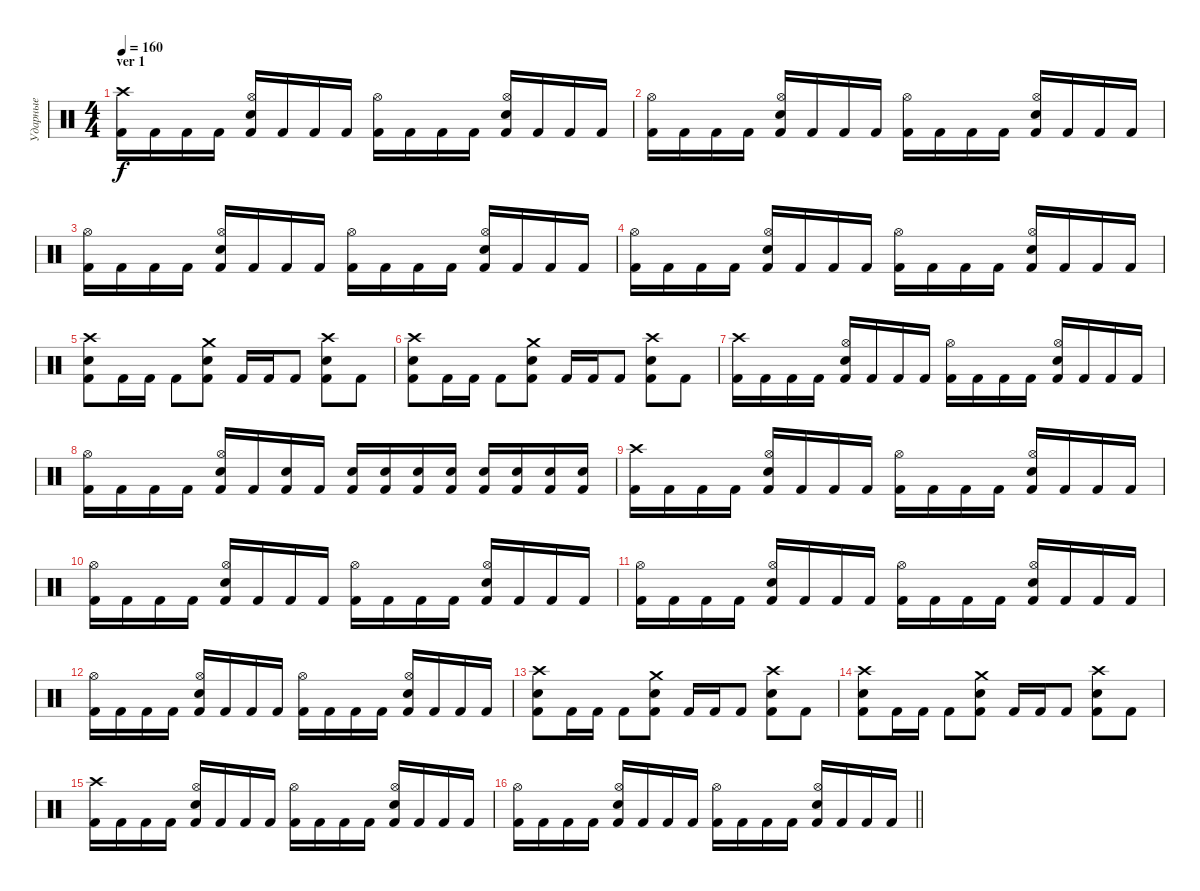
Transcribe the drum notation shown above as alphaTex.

\track ("Ударные" "Ударные") {instrument percussion}
\staff {score}
\articulation defaults
\ts (4 4)
\section ("" "ver 1")
\tempo 160
\clef neutral
\ks c
("Crash high (hit)" "Kick (hit) 2").16{dy f} "Kick (hit) 2".16 "Kick (hit) 2".16 "Kick (hit) 2".16 ("Hi-Hat (open)" "Electric Snare (hit)" "Kick (hit) 2").16 "Kick (hit) 2".16 "Kick (hit) 2".16 "Kick (hit) 2".16 ("Hi-Hat (open)" "Kick (hit) 2").16 "Kick (hit) 2".16 "Kick (hit) 2".16 "Kick (hit) 2".16 ("Hi-Hat (open)" "Electric Snare (hit)" "Kick (hit) 2").16 "Kick (hit) 2".16 "Kick (hit) 2".16 "Kick (hit) 2".16 |
("Hi-Hat (open)" "Kick (hit) 2").16 "Kick (hit) 2".16 "Kick (hit) 2".16 "Kick (hit) 2".16 ("Hi-Hat (open)" "Electric Snare (hit)" "Kick (hit) 2").16 "Kick (hit) 2".16 "Kick (hit) 2".16 "Kick (hit) 2".16 ("Hi-Hat (open)" "Kick (hit) 2").16 "Kick (hit) 2".16 "Kick (hit) 2".16 "Kick (hit) 2".16 ("Hi-Hat (open)" "Electric Snare (hit)" "Kick (hit) 2").16 "Kick (hit) 2".16 "Kick (hit) 2".16 "Kick (hit) 2".16 |
("Hi-Hat (open)" "Kick (hit) 2").16 "Kick (hit) 2".16 "Kick (hit) 2".16 "Kick (hit) 2".16 ("Hi-Hat (open)" "Electric Snare (hit)" "Kick (hit) 2").16 "Kick (hit) 2".16 "Kick (hit) 2".16 "Kick (hit) 2".16 ("Hi-Hat (open)" "Kick (hit) 2").16 "Kick (hit) 2".16 "Kick (hit) 2".16 "Kick (hit) 2".16 ("Hi-Hat (open)" "Electric Snare (hit)" "Kick (hit) 2").16 "Kick (hit) 2".16 "Kick (hit) 2".16 "Kick (hit) 2".16 |
("Hi-Hat (open)" "Kick (hit) 2").16 "Kick (hit) 2".16 "Kick (hit) 2".16 "Kick (hit) 2".16 ("Hi-Hat (open)" "Electric Snare (hit)" "Kick (hit) 2").16 "Kick (hit) 2".16 "Kick (hit) 2".16 "Kick (hit) 2".16 ("Hi-Hat (open)" "Kick (hit) 2").16 "Kick (hit) 2".16 "Kick (hit) 2".16 "Kick (hit) 2".16 ("Hi-Hat (open)" "Electric Snare (hit)" "Kick (hit) 2").16 "Kick (hit) 2".16 "Kick (hit) 2".16 "Kick (hit) 2".16 |
("Crash high (hit)" "Electric Snare (hit)" "Kick (hit) 2").8 "Kick (hit) 2".16 "Kick (hit) 2".16 "Kick (hit) 2".8 ("Crash medium (hit)" "Electric Snare (hit)" "Kick (hit) 2").8 "Kick (hit) 2".16 "Kick (hit) 2".16 "Kick (hit) 2".8 ("Crash high (hit)" "Electric Snare (hit)" "Kick (hit) 2").8 "Kick (hit) 2".8 |
("Crash high (hit)" "Electric Snare (hit)" "Kick (hit) 2").8 "Kick (hit) 2".16 "Kick (hit) 2".16 "Kick (hit) 2".8 ("Crash medium (hit)" "Electric Snare (hit)" "Kick (hit) 2").8 "Kick (hit) 2".16 "Kick (hit) 2".16 "Kick (hit) 2".8 ("Crash high (hit)" "Electric Snare (hit)" "Kick (hit) 2").8 "Kick (hit) 2".8 |
("Crash high (hit)" "Kick (hit) 2").16 "Kick (hit) 2".16 "Kick (hit) 2".16 "Kick (hit) 2".16 ("Hi-Hat (open)" "Electric Snare (hit)" "Kick (hit) 2").16 "Kick (hit) 2".16 "Kick (hit) 2".16 "Kick (hit) 2".16 ("Hi-Hat (open)" "Kick (hit) 2").16 "Kick (hit) 2".16 "Kick (hit) 2".16 "Kick (hit) 2".16 ("Hi-Hat (open)" "Electric Snare (hit)" "Kick (hit) 2").16 "Kick (hit) 2".16 "Kick (hit) 2".16 "Kick (hit) 2".16 |
("Hi-Hat (open)" "Kick (hit) 2").16 "Kick (hit) 2".16 "Kick (hit) 2".16 "Kick (hit) 2".16 ("Hi-Hat (open)" "Electric Snare (hit)" "Kick (hit) 2").16 "Kick (hit) 2".16 ("Electric Snare (hit)" "Kick (hit) 2").16 "Kick (hit) 2".16 ("Electric Snare (hit)" "Kick (hit) 2").16 ("Electric Snare (hit)" "Kick (hit) 2").16 ("Electric Snare (hit)" "Kick (hit) 2").16 ("Electric Snare (hit)" "Kick (hit) 2").16 ("Electric Snare (hit)" "Kick (hit) 2").16 ("Electric Snare (hit)" "Kick (hit) 2").16 ("Electric Snare (hit)" "Kick (hit) 2").16 ("Electric Snare (hit)" "Kick (hit) 2").16 |
("Crash high (hit)" "Kick (hit) 2").16 "Kick (hit) 2".16 "Kick (hit) 2".16 "Kick (hit) 2".16 ("Hi-Hat (open)" "Electric Snare (hit)" "Kick (hit) 2").16 "Kick (hit) 2".16 "Kick (hit) 2".16 "Kick (hit) 2".16 ("Hi-Hat (open)" "Kick (hit) 2").16 "Kick (hit) 2".16 "Kick (hit) 2".16 "Kick (hit) 2".16 ("Hi-Hat (open)" "Electric Snare (hit)" "Kick (hit) 2").16 "Kick (hit) 2".16 "Kick (hit) 2".16 "Kick (hit) 2".16 |
("Hi-Hat (open)" "Kick (hit) 2").16 "Kick (hit) 2".16 "Kick (hit) 2".16 "Kick (hit) 2".16 ("Hi-Hat (open)" "Electric Snare (hit)" "Kick (hit) 2").16 "Kick (hit) 2".16 "Kick (hit) 2".16 "Kick (hit) 2".16 ("Hi-Hat (open)" "Kick (hit) 2").16 "Kick (hit) 2".16 "Kick (hit) 2".16 "Kick (hit) 2".16 ("Hi-Hat (open)" "Electric Snare (hit)" "Kick (hit) 2").16 "Kick (hit) 2".16 "Kick (hit) 2".16 "Kick (hit) 2".16 |
("Hi-Hat (open)" "Kick (hit) 2").16 "Kick (hit) 2".16 "Kick (hit) 2".16 "Kick (hit) 2".16 ("Hi-Hat (open)" "Electric Snare (hit)" "Kick (hit) 2").16 "Kick (hit) 2".16 "Kick (hit) 2".16 "Kick (hit) 2".16 ("Hi-Hat (open)" "Kick (hit) 2").16 "Kick (hit) 2".16 "Kick (hit) 2".16 "Kick (hit) 2".16 ("Hi-Hat (open)" "Electric Snare (hit)" "Kick (hit) 2").16 "Kick (hit) 2".16 "Kick (hit) 2".16 "Kick (hit) 2".16 |
("Hi-Hat (open)" "Kick (hit) 2").16 "Kick (hit) 2".16 "Kick (hit) 2".16 "Kick (hit) 2".16 ("Hi-Hat (open)" "Electric Snare (hit)" "Kick (hit) 2").16 "Kick (hit) 2".16 "Kick (hit) 2".16 "Kick (hit) 2".16 ("Hi-Hat (open)" "Kick (hit) 2").16 "Kick (hit) 2".16 "Kick (hit) 2".16 "Kick (hit) 2".16 ("Hi-Hat (open)" "Electric Snare (hit)" "Kick (hit) 2").16 "Kick (hit) 2".16 "Kick (hit) 2".16 "Kick (hit) 2".16 |
("Crash high (hit)" "Electric Snare (hit)" "Kick (hit) 2").8 "Kick (hit) 2".16 "Kick (hit) 2".16 "Kick (hit) 2".8 ("Crash medium (hit)" "Electric Snare (hit)" "Kick (hit) 2").8 "Kick (hit) 2".16 "Kick (hit) 2".16 "Kick (hit) 2".8 ("Crash high (hit)" "Electric Snare (hit)" "Kick (hit) 2").8 "Kick (hit) 2".8 |
("Crash high (hit)" "Electric Snare (hit)" "Kick (hit) 2").8 "Kick (hit) 2".16 "Kick (hit) 2".16 "Kick (hit) 2".8 ("Crash medium (hit)" "Electric Snare (hit)" "Kick (hit) 2").8 "Kick (hit) 2".16 "Kick (hit) 2".16 "Kick (hit) 2".8 ("Crash high (hit)" "Electric Snare (hit)" "Kick (hit) 2").8 "Kick (hit) 2".8 |
("Crash high (hit)" "Kick (hit) 2").16 "Kick (hit) 2".16 "Kick (hit) 2".16 "Kick (hit) 2".16 ("Hi-Hat (open)" "Electric Snare (hit)" "Kick (hit) 2").16 "Kick (hit) 2".16 "Kick (hit) 2".16 "Kick (hit) 2".16 ("Hi-Hat (open)" "Kick (hit) 2").16 "Kick (hit) 2".16 "Kick (hit) 2".16 "Kick (hit) 2".16 ("Hi-Hat (open)" "Electric Snare (hit)" "Kick (hit) 2").16 "Kick (hit) 2".16 "Kick (hit) 2".16 "Kick (hit) 2".16 |
\barLineRight lightlight
("Hi-Hat (open)" "Kick (hit) 2").16 "Kick (hit) 2".16 "Kick (hit) 2".16 "Kick (hit) 2".16 ("Hi-Hat (open)" "Electric Snare (hit)" "Kick (hit) 2").16 "Kick (hit) 2".16 "Kick (hit) 2".16 "Kick (hit) 2".16 ("Hi-Hat (open)" "Kick (hit) 2").16 "Kick (hit) 2".16 "Kick (hit) 2".16 "Kick (hit) 2".16 ("Hi-Hat (open)" "Electric Snare (hit)" "Kick (hit) 2").16 "Kick (hit) 2".16 "Kick (hit) 2".16 "Kick (hit) 2".16
